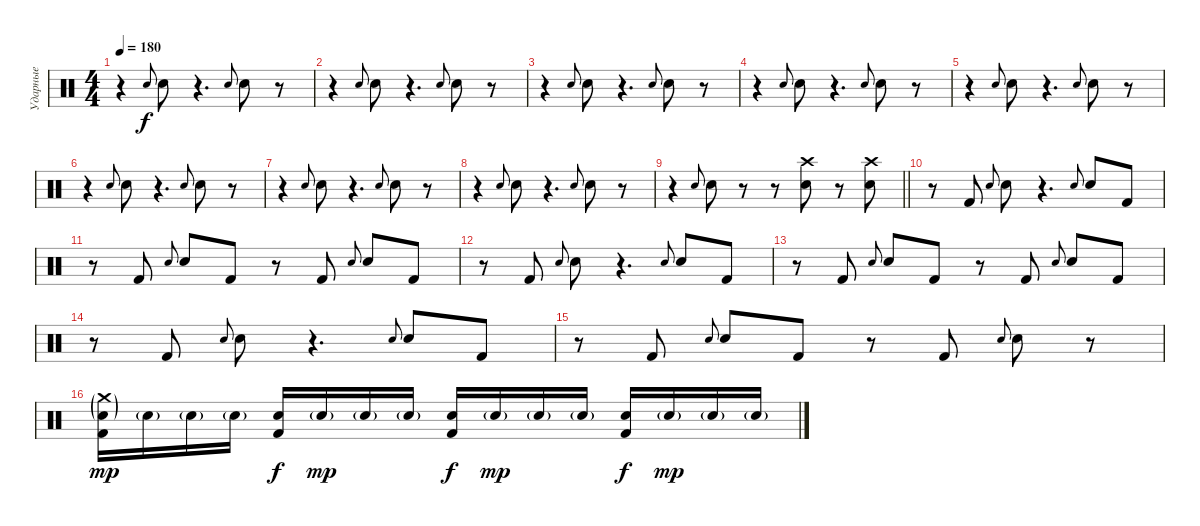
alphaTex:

\track ("Ударные" "Ударные") {instrument percussion}
\staff {score}
\articulation defaults
\ts (4 4)
\tempo 180
\clef neutral
\ks c
r.4{dy f} "Snare (hit) 2".8{gr onbeat} "Snare (hit) 2".8 r.4{d} "Snare (hit) 2".8{gr onbeat} "Snare (hit) 2".8 r.8 |
r.4 "Snare (hit) 2".8{gr onbeat} "Snare (hit) 2".8 r.4{d} "Snare (hit) 2".8{gr onbeat} "Snare (hit) 2".8 r.8 |
r.4 "Snare (hit) 2".8{gr onbeat} "Snare (hit) 2".8 r.4{d} "Snare (hit) 2".8{gr onbeat} "Snare (hit) 2".8 r.8 |
r.4 "Snare (hit) 2".8{gr onbeat} "Snare (hit) 2".8 r.4{d} "Snare (hit) 2".8{gr onbeat} "Snare (hit) 2".8 r.8 |
r.4 "Snare (hit) 2".8{gr onbeat} "Snare (hit) 2".8 r.4{d} "Snare (hit) 2".8{gr onbeat} "Snare (hit) 2".8 r.8 |
r.4 "Snare (hit) 2".8{gr onbeat} "Snare (hit) 2".8 r.4{d} "Snare (hit) 2".8{gr onbeat} "Snare (hit) 2".8 r.8 |
r.4 "Snare (hit) 2".8{gr onbeat} "Snare (hit) 2".8 r.4{d} "Snare (hit) 2".8{gr onbeat} "Snare (hit) 2".8 r.8 |
r.4 "Snare (hit) 2".8{gr onbeat} "Snare (hit) 2".8 r.4{d} "Snare (hit) 2".8{gr onbeat} "Snare (hit) 2".8 r.8 |
\barLineRight lightlight
r.4 "Snare (hit) 2".8{gr onbeat} "Snare (hit) 2".8 r.8 r.8 ("Crash high (hit)" "Snare (hit) 2").8 r.8 ("Crash high (hit)" "Snare (hit) 2").8 |
r.8 "Kick (hit) 2".8 "Snare (hit) 2".8{gr onbeat} "Snare (hit) 2".8 r.4{d} "Snare (hit) 2".8{gr onbeat} "Snare (hit) 2".8 "Kick (hit) 2".8 |
r.8 "Kick (hit) 2".8 "Snare (hit) 2".8{gr onbeat} "Snare (hit) 2".8 "Kick (hit) 2".8 r.8 "Kick (hit) 2".8 "Snare (hit) 2".8{gr onbeat} "Snare (hit) 2".8 "Kick (hit) 2".8 |
r.8 "Kick (hit) 2".8 "Snare (hit) 2".8{gr onbeat} "Snare (hit) 2".8 r.4{d} "Snare (hit) 2".8{gr onbeat} "Snare (hit) 2".8 "Kick (hit) 2".8 |
r.8 "Kick (hit) 2".8 "Snare (hit) 2".8{gr onbeat} "Snare (hit) 2".8 "Kick (hit) 2".8 r.8 "Kick (hit) 2".8 "Snare (hit) 2".8{gr onbeat} "Snare (hit) 2".8 "Kick (hit) 2".8 |
r.8 "Kick (hit) 2".8 "Snare (hit) 2".8{gr onbeat} "Snare (hit) 2".8 r.4{d} "Snare (hit) 2".8{gr onbeat} "Snare (hit) 2".8 "Kick (hit) 2".8 |
r.8 "Kick (hit) 2".8 "Snare (hit) 2".8{gr onbeat} "Snare (hit) 2".8 "Kick (hit) 2".8 r.8 "Kick (hit) 2".8 "Snare (hit) 2".8{gr onbeat} "Snare (hit) 2".8 r.8 |
("Crash medium (hit)"{g} "Snare (hit) 2"{g} "Kick (hit) 2").16{dy mp} "Snare (hit) 2"{g}.16 "Snare (hit) 2"{g}.16 "Snare (hit) 2"{g}.16 ("Snare (hit) 2" "Kick (hit) 2").16{dy f} "Snare (hit) 2"{g}.16{dy mp} "Snare (hit) 2"{g}.16 "Snare (hit) 2"{g}.16 ("Snare (hit) 2" "Kick (hit) 2").16{dy f} "Snare (hit) 2"{g}.16{dy mp} "Snare (hit) 2"{g}.16 "Snare (hit) 2"{g}.16 ("Snare (hit) 2" "Kick (hit) 2").16{dy f} "Snare (hit) 2"{g}.16{dy mp} "Snare (hit) 2"{g}.16 "Snare (hit) 2"{g}.16
